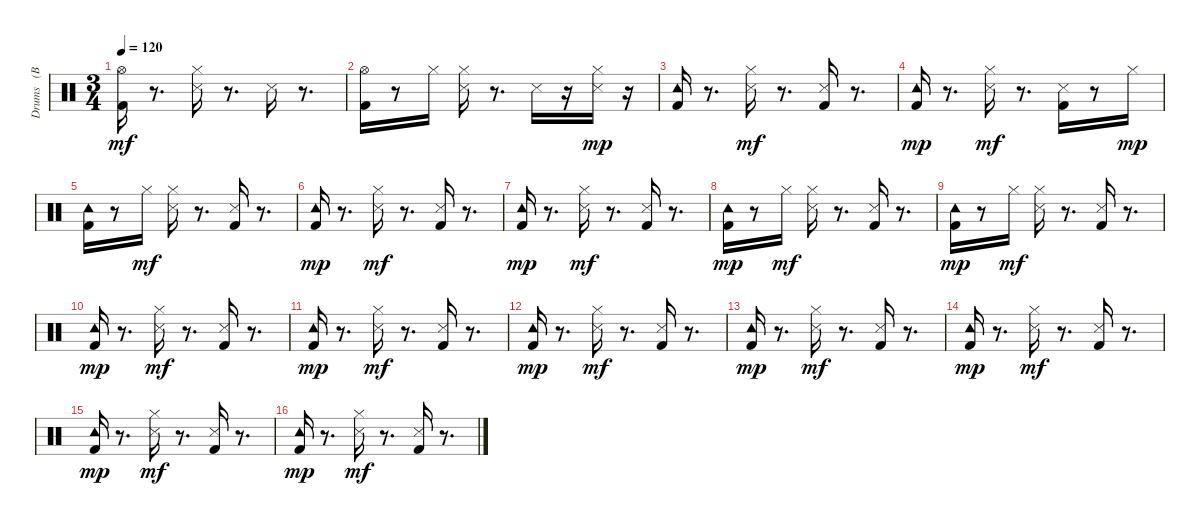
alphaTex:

\track ("Drums   (BB)" "Drums   (B") {instrument percussion}
\staff {score}
\articulation defaults
\ts (3 4)
\tempo 120
\clef neutral
\ks c
("Kick (hit) 2" "Hi-Hat (open)").16{dy mf} r.8{d} ("Hi-Hat (closed)" "Snare (side stick) 3").16 r.8{d} "Snare (side stick) 3".16 r.8{d} |
("Kick (hit) 2" "Hi-Hat (open)").16 r.8 "Hi-Hat (closed)".16 ("Hi-Hat (closed)" "Snare (side stick) 3").16 r.8{d} "Snare (side stick) 3".16 r.16 ("Hi-Hat (closed)" "Snare (side stick) 3").16{dy mp} r.16 |
("Kick (hit) 2" "Tambourine (hit)").16 r.8{d} ("Hi-Hat (closed)" "Snare (side stick) 3").16{dy mf} r.8{d} ("Kick (hit) 2" "Snare (side stick) 3").16 r.8{d} |
("Kick (hit) 2" "Tambourine (hit)").16{dy mp} r.8{d} ("Hi-Hat (closed)" "Snare (side stick) 3").16{dy mf} r.8{d} ("Kick (hit) 2" "Snare (side stick) 3").16 r.8 "Hi-Hat (closed)".16{dy mp} |
("Kick (hit) 2" "Tambourine (hit)").16 r.8 "Hi-Hat (closed)".16{dy mf} ("Hi-Hat (closed)" "Snare (side stick) 3").16 r.8{d} ("Kick (hit) 2" "Snare (side stick) 3").16 r.8{d} |
("Kick (hit) 2" "Tambourine (hit)").16{dy mp} r.8{d} ("Hi-Hat (closed)" "Snare (side stick) 3").16{dy mf} r.8{d} ("Kick (hit) 2" "Snare (side stick) 3").16 r.8{d} |
("Kick (hit) 2" "Tambourine (hit)").16{dy mp} r.8{d} ("Hi-Hat (closed)" "Snare (side stick) 3").16{dy mf} r.8{d} ("Kick (hit) 2" "Snare (side stick) 3").16 r.8{d} |
("Kick (hit) 2" "Tambourine (hit)").16{dy mp} r.8 "Hi-Hat (closed)".16{dy mf} ("Hi-Hat (closed)" "Snare (side stick) 3").16 r.8{d} ("Kick (hit) 2" "Snare (side stick) 3").16 r.8{d} |
("Kick (hit) 2" "Tambourine (hit)").16{dy mp} r.8 "Hi-Hat (closed)".16{dy mf} ("Hi-Hat (closed)" "Snare (side stick) 3").16 r.8{d} ("Kick (hit) 2" "Snare (side stick) 3").16 r.8{d} |
("Kick (hit) 2" "Tambourine (hit)").16{dy mp} r.8{d} ("Hi-Hat (closed)" "Snare (side stick) 3").16{dy mf} r.8{d} ("Kick (hit) 2" "Snare (side stick) 3").16 r.8{d} |
("Kick (hit) 2" "Tambourine (hit)").16{dy mp} r.8{d} ("Hi-Hat (closed)" "Snare (side stick) 3").16{dy mf} r.8{d} ("Kick (hit) 2" "Snare (side stick) 3").16 r.8{d} |
("Kick (hit) 2" "Tambourine (hit)").16{dy mp} r.8{d} ("Hi-Hat (closed)" "Snare (side stick) 3").16{dy mf} r.8{d} ("Kick (hit) 2" "Snare (side stick) 3").16 r.8{d} |
("Kick (hit) 2" "Tambourine (hit)").16{dy mp} r.8{d} ("Hi-Hat (closed)" "Snare (side stick) 3").16{dy mf} r.8{d} ("Kick (hit) 2" "Snare (side stick) 3").16 r.8{d} |
("Kick (hit) 2" "Tambourine (hit)").16{dy mp} r.8{d} ("Hi-Hat (closed)" "Snare (side stick) 3").16{dy mf} r.8{d} ("Kick (hit) 2" "Snare (side stick) 3").16 r.8{d} |
("Kick (hit) 2" "Tambourine (hit)").16{dy mp} r.8{d} ("Hi-Hat (closed)" "Snare (side stick) 3").16{dy mf} r.8{d} ("Kick (hit) 2" "Snare (side stick) 3").16 r.8{d} |
("Kick (hit) 2" "Tambourine (hit)").16{dy mp} r.8{d} ("Hi-Hat (closed)" "Snare (side stick) 3").16{dy mf} r.8{d} ("Kick (hit) 2" "Snare (side stick) 3").16 r.8{d}
